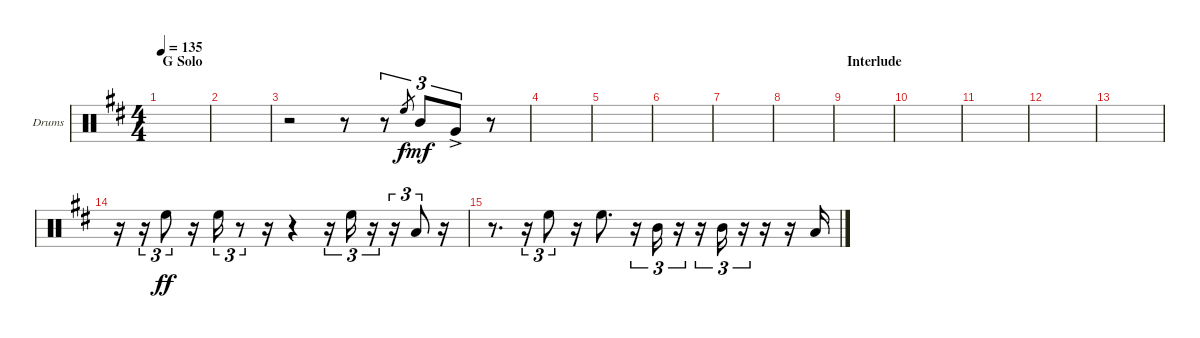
\bracketExtendMode groupsimilarinstruments
\firstSystemTrackNameOrientation horizontal
\otherSystemsTrackNameOrientation horizontal
\track ("Tom" "Drums") {instrument percussion}
\staff {score}
\articulation defaults
\ts (4 4)
\section ("" "G Solo")
\tempo 135
\clef neutral
\ks d
|
|
r.2 r.8 r.8{tu (3 2)} "High Floor Tom (hit)".8{tu (3 2) gr} "Mid Tom (hit)".8{tu (3 2) dy mf} "Very Low Tom (hit)"{ac}.8{tu (3 2)} r.8 |
|
|
|
|
|
\section ("" "Interlude")
|
|
|
|
|
r.16 r.16{tu (3 2)} "High Floor Tom (hit)".8{tu (3 2) dy ff} r.16 "High Floor Tom (hit)".16{tu (3 2)} r.8{tu (3 2)} r.16 r.4 r.16{tu (3 2)} "High Floor Tom (hit)".16{tu (3 2)} r.16{tu (3 2)} r.16{tu (3 2)} "Low Tom (hit)".8{tu (3 2)} r.16 |
r.8{d} r.16{tu (3 2)} "High Floor Tom (hit)".8{tu (3 2)} r.16 "High Floor Tom (hit)".8{d} r.16{tu (3 2)} "Mid Tom (hit)".16{tu (3 2)} r.16{tu (3 2)} r.16{tu (3 2)} "Mid Tom (hit)".16{tu (3 2)} r.16{tu (3 2)} r.16 r.16 "Low Tom (hit)".16
